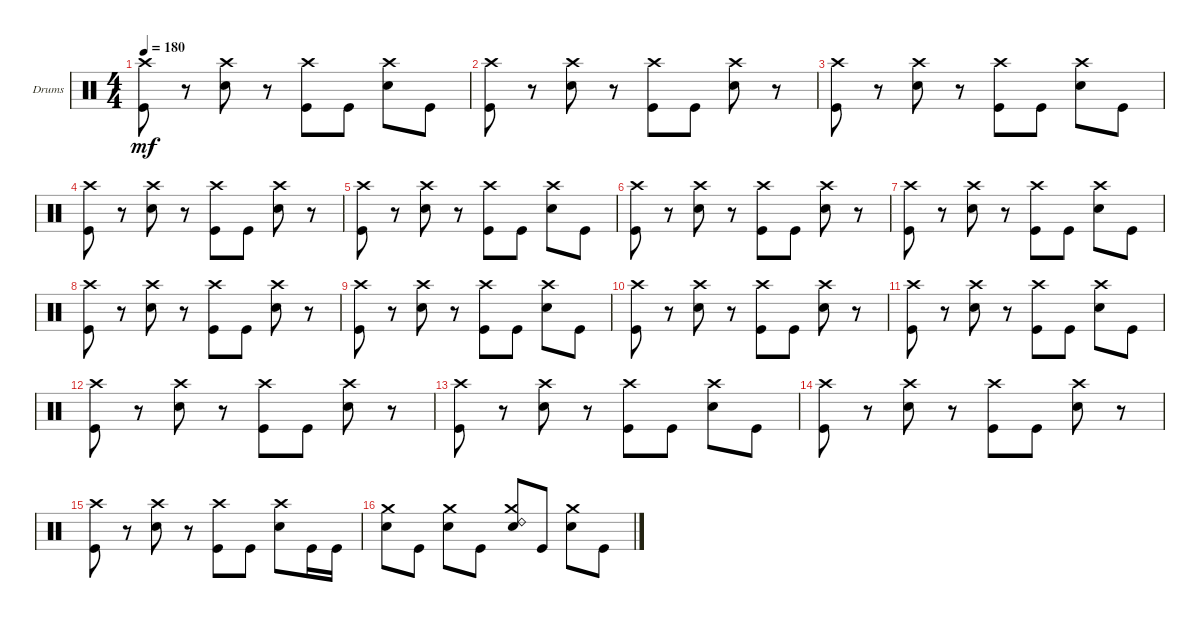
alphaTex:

\bracketExtendMode groupsimilarinstruments
\firstSystemTrackNameOrientation horizontal
\otherSystemsTrackNameOrientation horizontal
\track ("Drumkit" "Drums") {instrument percussion}
\staff {score}
\articulation defaults
\ts (4 4)
\tempo 180
\clef neutral
\ks c
("Kick (hit)" "Crash high (hit)").8{dy mf} r.8 ("Snare (hit) 2" "Crash high (hit)").8 r.8 ("Kick (hit)" "Crash high (hit)").8 "Kick (hit)".8 ("Snare (hit) 2" "Crash high (hit)").8 "Kick (hit)".8 |
("Kick (hit)" "Crash high (hit)").8 r.8 ("Snare (hit) 2" "Crash high (hit)").8 r.8 ("Kick (hit)" "Crash high (hit)").8 "Kick (hit)".8 ("Snare (hit) 2" "Crash high (hit)").8 r.8 |
("Kick (hit)" "Crash high (hit)").8 r.8 ("Snare (hit) 2" "Crash high (hit)").8 r.8 ("Kick (hit)" "Crash high (hit)").8 "Kick (hit)".8 ("Snare (hit) 2" "Crash high (hit)").8 "Kick (hit)".8 |
("Kick (hit)" "Crash high (hit)").8 r.8 ("Snare (hit) 2" "Crash high (hit)").8 r.8 ("Kick (hit)" "Crash high (hit)").8 "Kick (hit)".8 ("Snare (hit) 2" "Crash high (hit)").8 r.8 |
("Kick (hit)" "Crash high (hit)").8 r.8 ("Snare (hit) 2" "Crash high (hit)").8 r.8 ("Kick (hit)" "Crash high (hit)").8 "Kick (hit)".8 ("Snare (hit) 2" "Crash high (hit)").8 "Kick (hit)".8 |
("Kick (hit)" "Crash high (hit)").8 r.8 ("Snare (hit) 2" "Crash high (hit)").8 r.8 ("Kick (hit)" "Crash high (hit)").8 "Kick (hit)".8 ("Snare (hit) 2" "Crash high (hit)").8 r.8 |
("Kick (hit)" "Crash high (hit)").8 r.8 ("Snare (hit) 2" "Crash high (hit)").8 r.8 ("Kick (hit)" "Crash high (hit)").8 "Kick (hit)".8 ("Snare (hit) 2" "Crash high (hit)").8 "Kick (hit)".8 |
("Kick (hit)" "Crash high (hit)").8 r.8 ("Snare (hit) 2" "Crash high (hit)").8 r.8 ("Kick (hit)" "Crash high (hit)").8 "Kick (hit)".8 ("Snare (hit) 2" "Crash high (hit)").8 r.8 |
("Kick (hit)" "Crash high (hit)").8 r.8 ("Snare (hit) 2" "Crash high (hit)").8 r.8 ("Kick (hit)" "Crash high (hit)").8 "Kick (hit)".8 ("Snare (hit) 2" "Crash high (hit)").8 "Kick (hit)".8 |
("Kick (hit)" "Crash high (hit)").8 r.8 ("Snare (hit) 2" "Crash high (hit)").8 r.8 ("Kick (hit)" "Crash high (hit)").8 "Kick (hit)".8 ("Snare (hit) 2" "Crash high (hit)").8 r.8 |
("Kick (hit)" "Crash high (hit)").8 r.8 ("Snare (hit) 2" "Crash high (hit)").8 r.8 ("Kick (hit)" "Crash high (hit)").8 "Kick (hit)".8 ("Snare (hit) 2" "Crash high (hit)").8 "Kick (hit)".8 |
("Kick (hit)" "Crash high (hit)").8 r.8 ("Snare (hit) 2" "Crash high (hit)").8 r.8 ("Kick (hit)" "Crash high (hit)").8 "Kick (hit)".8 ("Snare (hit) 2" "Crash high (hit)").8 r.8 |
("Kick (hit)" "Crash high (hit)").8 r.8 ("Snare (hit) 2" "Crash high (hit)").8 r.8 ("Kick (hit)" "Crash high (hit)").8 "Kick (hit)".8 ("Snare (hit) 2" "Crash high (hit)").8 "Kick (hit)".8 |
("Kick (hit)" "Crash high (hit)").8 r.8 ("Snare (hit) 2" "Crash high (hit)").8 r.8 ("Kick (hit)" "Crash high (hit)").8 "Kick (hit)".8 ("Snare (hit) 2" "Crash high (hit)").8 r.8 |
("Kick (hit)" "Crash high (hit)").8 r.8 ("Snare (hit) 2" "Crash high (hit)").8 r.8 ("Kick (hit)" "Crash high (hit)").8 "Kick (hit)".8 ("Snare (hit) 2" "Crash high (hit)").8 "Kick (hit)".16 "Kick (hit)".16 |
("Snare (hit) 2" "Crash medium (hit)").8 "Kick (hit)".8 ("Snare (hit) 2" "Crash medium (hit)").8 "Kick (hit)".8 ("Snare (hit) 2" "Ride (bell) 2" "Crash medium (hit)").8 "Kick (hit)".8 ("Snare (hit) 2" "Crash medium (hit)").8 "Kick (hit)".8
